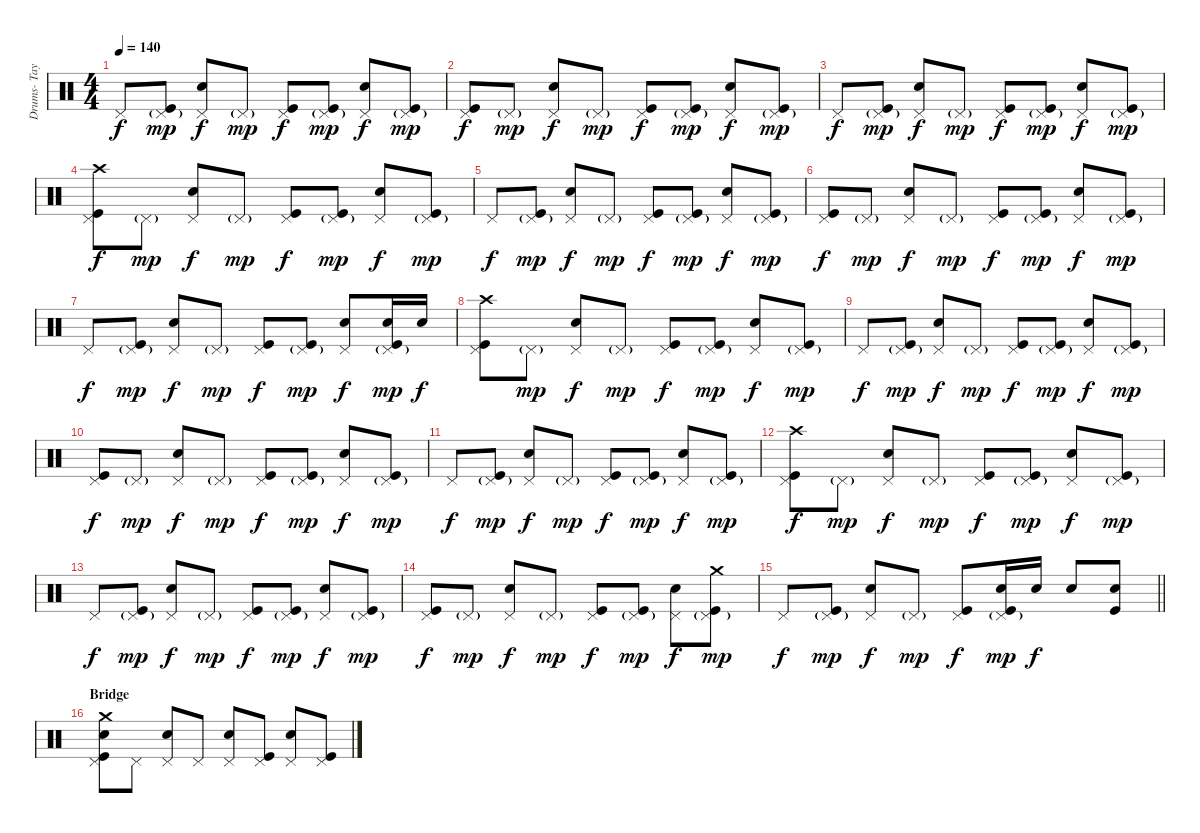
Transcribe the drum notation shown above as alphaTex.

\track ("Drums- Taylor Hawkins" "Drums- Tay") {instrument percussion}
\staff {score}
\articulation defaults
\ts (4 4)
\tempo 140
\clef neutral
\ks c "Pedal Hi-Hat (hit)".8{dy f}
("Pedal Hi-Hat (hit)"{g} "Kick (hit)").8{dy mp} ("Pedal Hi-Hat (hit)" "Snare (hit) 2").8{dy f} "Pedal Hi-Hat (hit)"{g}.8{dy mp} ("Pedal Hi-Hat (hit)" "Kick (hit)").8{dy f} ("Pedal Hi-Hat (hit)"{g} "Kick (hit)").8{dy mp} ("Pedal Hi-Hat (hit)" "Snare (hit) 2").8{dy f} ("Pedal Hi-Hat (hit)"{g} "Kick (hit)").8{dy mp} |
("Pedal Hi-Hat (hit)" "Kick (hit)").8{dy f} "Pedal Hi-Hat (hit)"{g}.8{dy mp} ("Pedal Hi-Hat (hit)" "Snare (hit) 2").8{dy f} "Pedal Hi-Hat (hit)"{g}.8{dy mp} ("Pedal Hi-Hat (hit)" "Kick (hit)").8{dy f} ("Pedal Hi-Hat (hit)"{g} "Kick (hit)").8{dy mp} ("Pedal Hi-Hat (hit)" "Snare (hit) 2").8{dy f} ("Pedal Hi-Hat (hit)"{g} "Kick (hit)").8{dy mp} |
"Pedal Hi-Hat (hit)".8{dy f} ("Pedal Hi-Hat (hit)"{g} "Kick (hit)").8{dy mp} ("Pedal Hi-Hat (hit)" "Snare (hit) 2").8{dy f} "Pedal Hi-Hat (hit)"{g}.8{dy mp} ("Pedal Hi-Hat (hit)" "Kick (hit)").8{dy f} ("Pedal Hi-Hat (hit)"{g} "Kick (hit)").8{dy mp} ("Pedal Hi-Hat (hit)" "Snare (hit) 2").8{dy f} ("Pedal Hi-Hat (hit)"{g} "Kick (hit)").8{dy mp} |
("Crash high (hit)" "Pedal Hi-Hat (hit)" "Kick (hit)").8{dy f} "Pedal Hi-Hat (hit)"{g}.8{dy mp} ("Pedal Hi-Hat (hit)" "Snare (hit) 2").8{dy f} "Pedal Hi-Hat (hit)"{g}.8{dy mp} ("Pedal Hi-Hat (hit)" "Kick (hit)").8{dy f} ("Pedal Hi-Hat (hit)"{g} "Kick (hit)").8{dy mp} ("Pedal Hi-Hat (hit)" "Snare (hit) 2").8{dy f} ("Pedal Hi-Hat (hit)"{g} "Kick (hit)").8{dy mp} |
"Pedal Hi-Hat (hit)".8{dy f} ("Pedal Hi-Hat (hit)"{g} "Kick (hit)").8{dy mp} ("Pedal Hi-Hat (hit)" "Snare (hit) 2").8{dy f} "Pedal Hi-Hat (hit)"{g}.8{dy mp} ("Pedal Hi-Hat (hit)" "Kick (hit)").8{dy f} ("Pedal Hi-Hat (hit)"{g} "Kick (hit)").8{dy mp} ("Pedal Hi-Hat (hit)" "Snare (hit) 2").8{dy f} ("Pedal Hi-Hat (hit)"{g} "Kick (hit)").8{dy mp} |
("Pedal Hi-Hat (hit)" "Kick (hit)").8{dy f} "Pedal Hi-Hat (hit)"{g}.8{dy mp} ("Pedal Hi-Hat (hit)" "Snare (hit) 2").8{dy f} "Pedal Hi-Hat (hit)"{g}.8{dy mp} ("Pedal Hi-Hat (hit)" "Kick (hit)").8{dy f} ("Pedal Hi-Hat (hit)"{g} "Kick (hit)").8{dy mp} ("Pedal Hi-Hat (hit)" "Snare (hit) 2").8{dy f} ("Pedal Hi-Hat (hit)"{g} "Kick (hit)").8{dy mp} |
"Pedal Hi-Hat (hit)".8{dy f} ("Pedal Hi-Hat (hit)"{g} "Kick (hit)").8{dy mp} ("Pedal Hi-Hat (hit)" "Snare (hit) 2").8{dy f} "Pedal Hi-Hat (hit)"{g}.8{dy mp} ("Pedal Hi-Hat (hit)" "Kick (hit)").8{dy f} ("Pedal Hi-Hat (hit)"{g} "Kick (hit)").8{dy mp} ("Pedal Hi-Hat (hit)" "Snare (hit) 2").8{dy f} ("Electric Snare (hit)" "Pedal Hi-Hat (hit)"{g} "Kick (hit)").16{dy mp} "Electric Snare (hit)".16{dy f} |
("Crash high (hit)" "Pedal Hi-Hat (hit)" "Kick (hit)").8 "Pedal Hi-Hat (hit)"{g}.8{dy mp} ("Pedal Hi-Hat (hit)" "Snare (hit) 2").8{dy f} "Pedal Hi-Hat (hit)"{g}.8{dy mp} ("Pedal Hi-Hat (hit)" "Kick (hit)").8{dy f} ("Pedal Hi-Hat (hit)"{g} "Kick (hit)").8{dy mp} ("Pedal Hi-Hat (hit)" "Snare (hit) 2").8{dy f} ("Pedal Hi-Hat (hit)"{g} "Kick (hit)").8{dy mp} |
"Pedal Hi-Hat (hit)".8{dy f} ("Pedal Hi-Hat (hit)"{g} "Kick (hit)").8{dy mp} ("Pedal Hi-Hat (hit)" "Snare (hit) 2").8{dy f} "Pedal Hi-Hat (hit)"{g}.8{dy mp} ("Pedal Hi-Hat (hit)" "Kick (hit)").8{dy f} ("Pedal Hi-Hat (hit)"{g} "Kick (hit)").8{dy mp} ("Pedal Hi-Hat (hit)" "Snare (hit) 2").8{dy f} ("Pedal Hi-Hat (hit)"{g} "Kick (hit)").8{dy mp} |
("Pedal Hi-Hat (hit)" "Kick (hit)").8{dy f} "Pedal Hi-Hat (hit)"{g}.8{dy mp} ("Pedal Hi-Hat (hit)" "Snare (hit) 2").8{dy f} "Pedal Hi-Hat (hit)"{g}.8{dy mp} ("Pedal Hi-Hat (hit)" "Kick (hit)").8{dy f} ("Pedal Hi-Hat (hit)"{g} "Kick (hit)").8{dy mp} ("Pedal Hi-Hat (hit)" "Snare (hit) 2").8{dy f} ("Pedal Hi-Hat (hit)"{g} "Kick (hit)").8{dy mp} |
"Pedal Hi-Hat (hit)".8{dy f} ("Pedal Hi-Hat (hit)"{g} "Kick (hit)").8{dy mp} ("Pedal Hi-Hat (hit)" "Snare (hit) 2").8{dy f} "Pedal Hi-Hat (hit)"{g}.8{dy mp} ("Pedal Hi-Hat (hit)" "Kick (hit)").8{dy f} ("Pedal Hi-Hat (hit)"{g} "Kick (hit)").8{dy mp} ("Pedal Hi-Hat (hit)" "Snare (hit) 2").8{dy f} ("Pedal Hi-Hat (hit)"{g} "Kick (hit)").8{dy mp} |
("Crash high (hit)" "Pedal Hi-Hat (hit)" "Kick (hit)").8{dy f} "Pedal Hi-Hat (hit)"{g}.8{dy mp} ("Pedal Hi-Hat (hit)" "Snare (hit) 2").8{dy f} "Pedal Hi-Hat (hit)"{g}.8{dy mp} ("Pedal Hi-Hat (hit)" "Kick (hit)").8{dy f} ("Pedal Hi-Hat (hit)"{g} "Kick (hit)").8{dy mp} ("Pedal Hi-Hat (hit)" "Snare (hit) 2").8{dy f} ("Pedal Hi-Hat (hit)"{g} "Kick (hit)").8{dy mp} |
"Pedal Hi-Hat (hit)".8{dy f} ("Pedal Hi-Hat (hit)"{g} "Kick (hit)").8{dy mp} ("Pedal Hi-Hat (hit)" "Snare (hit) 2").8{dy f} "Pedal Hi-Hat (hit)"{g}.8{dy mp} ("Pedal Hi-Hat (hit)" "Kick (hit)").8{dy f} ("Pedal Hi-Hat (hit)"{g} "Kick (hit)").8{dy mp} ("Pedal Hi-Hat (hit)" "Snare (hit) 2").8{dy f} ("Pedal Hi-Hat (hit)"{g} "Kick (hit)").8{dy mp} |
("Pedal Hi-Hat (hit)" "Kick (hit)").8{dy f} "Pedal Hi-Hat (hit)"{g}.8{dy mp} ("Pedal Hi-Hat (hit)" "Snare (hit) 2").8{dy f} "Pedal Hi-Hat (hit)"{g}.8{dy mp} ("Pedal Hi-Hat (hit)" "Kick (hit)").8{dy f} ("Pedal Hi-Hat (hit)"{g} "Kick (hit)").8{dy mp} ("Pedal Hi-Hat (hit)" "Snare (hit) 2").8{dy f} ("Crash medium (hit)" "Pedal Hi-Hat (hit)"{g} "Kick (hit)").8{dy mp} |
\barLineRight lightlight "Pedal Hi-Hat (hit)".8{dy f}
("Pedal Hi-Hat (hit)"{g} "Kick (hit)").8{dy mp} ("Pedal Hi-Hat (hit)" "Snare (hit) 2").8{dy f} "Pedal Hi-Hat (hit)"{g}.8{dy mp} ("Pedal Hi-Hat (hit)" "Kick (hit)").8{dy f} ("Electric Snare (hit)" "Pedal Hi-Hat (hit)"{g} "Kick (hit)").16{dy mp} "Snare (hit) 2".16{dy f} "Snare (hit) 2".8 ("Snare (hit) 2" "Kick (hit)").8 |
\section ("" "Bridge")
("Kick (hit)" "Crash medium (hit)" "Snare (hit) 2" "Pedal Hi-Hat (hit)").8 "Pedal Hi-Hat (hit)".8 ("Snare (hit) 2" "Pedal Hi-Hat (hit)").8 "Pedal Hi-Hat (hit)".8 ("Snare (hit) 2" "Pedal Hi-Hat (hit)").8 ("Pedal Hi-Hat (hit)" "Kick (hit)").8 ("Snare (hit) 2" "Pedal Hi-Hat (hit)").8 ("Pedal Hi-Hat (hit)" "Kick (hit)").8
